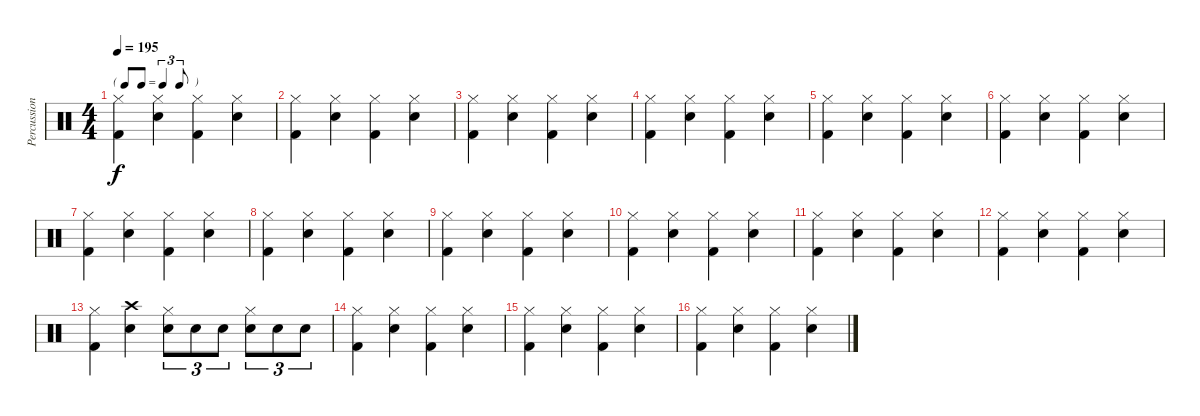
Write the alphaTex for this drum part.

\track ("Percussions" "Percussion") {instrument percussion}
\staff {score}
\articulation defaults
\ts (4 4)
\tf triplet8th
\tempo 195
\clef neutral
\ks c
("Hi-Hat (closed)" "Kick (hit) 2").4{dy f} ("Snare (hit) 2" "Hi-Hat (closed)").4 ("Hi-Hat (closed)" "Kick (hit) 2").4 ("Snare (hit) 2" "Hi-Hat (closed)").4 |
("Hi-Hat (closed)" "Kick (hit) 2").4 ("Snare (hit) 2" "Hi-Hat (closed)").4 ("Hi-Hat (closed)" "Kick (hit) 2").4 ("Snare (hit) 2" "Hi-Hat (closed)").4 |
("Hi-Hat (closed)" "Kick (hit) 2").4 ("Snare (hit) 2" "Hi-Hat (closed)").4 ("Hi-Hat (closed)" "Kick (hit) 2").4 ("Snare (hit) 2" "Hi-Hat (closed)").4 |
("Hi-Hat (closed)" "Kick (hit) 2").4 ("Snare (hit) 2" "Hi-Hat (closed)").4 ("Hi-Hat (closed)" "Kick (hit) 2").4 ("Snare (hit) 2" "Hi-Hat (closed)").4 |
("Hi-Hat (closed)" "Kick (hit) 2").4 ("Snare (hit) 2" "Hi-Hat (closed)").4 ("Hi-Hat (closed)" "Kick (hit) 2").4 ("Snare (hit) 2" "Hi-Hat (closed)").4 |
("Hi-Hat (closed)" "Kick (hit) 2").4 ("Snare (hit) 2" "Hi-Hat (closed)").4 ("Hi-Hat (closed)" "Kick (hit) 2").4 ("Snare (hit) 2" "Hi-Hat (closed)").4 |
("Hi-Hat (closed)" "Kick (hit) 2").4 ("Snare (hit) 2" "Hi-Hat (closed)").4 ("Hi-Hat (closed)" "Kick (hit) 2").4 ("Snare (hit) 2" "Hi-Hat (closed)").4 |
("Hi-Hat (closed)" "Kick (hit) 2").4 ("Snare (hit) 2" "Hi-Hat (closed)").4 ("Hi-Hat (closed)" "Kick (hit) 2").4 ("Snare (hit) 2" "Hi-Hat (closed)").4 |
("Hi-Hat (closed)" "Kick (hit) 2").4 ("Snare (hit) 2" "Hi-Hat (closed)").4 ("Hi-Hat (closed)" "Kick (hit) 2").4 ("Snare (hit) 2" "Hi-Hat (closed)").4 |
("Hi-Hat (closed)" "Kick (hit) 2").4 ("Snare (hit) 2" "Hi-Hat (closed)").4 ("Hi-Hat (closed)" "Kick (hit) 2").4 ("Snare (hit) 2" "Hi-Hat (closed)").4 |
("Hi-Hat (closed)" "Kick (hit) 2").4 ("Snare (hit) 2" "Hi-Hat (closed)").4 ("Hi-Hat (closed)" "Kick (hit) 2").4 ("Snare (hit) 2" "Hi-Hat (closed)").4 |
("Hi-Hat (closed)" "Kick (hit) 2").4 ("Snare (hit) 2" "Hi-Hat (closed)").4 ("Hi-Hat (closed)" "Kick (hit) 2").4 ("Snare (hit) 2" "Hi-Hat (closed)").4 |
("Hi-Hat (closed)" "Kick (hit) 2").4 ("Snare (hit) 2" "Crash high (hit)").4 ("Snare (hit) 2" "Hi-Hat (closed)").8{tu (3 2)} "Snare (hit) 2".8{tu (3 2)} "Snare (hit) 2".8{tu (3 2)} ("Snare (hit) 2" "Hi-Hat (closed)").8{tu (3 2)} "Snare (hit) 2".8{tu (3 2)} "Snare (hit) 2".8{tu (3 2)} |
("Hi-Hat (closed)" "Kick (hit) 2").4 ("Snare (hit) 2" "Hi-Hat (closed)").4 ("Hi-Hat (closed)" "Kick (hit) 2").4 ("Snare (hit) 2" "Hi-Hat (closed)").4 |
("Hi-Hat (closed)" "Kick (hit) 2").4 ("Snare (hit) 2" "Hi-Hat (closed)").4 ("Hi-Hat (closed)" "Kick (hit) 2").4 ("Snare (hit) 2" "Hi-Hat (closed)").4 |
("Hi-Hat (closed)" "Kick (hit) 2").4 ("Snare (hit) 2" "Hi-Hat (closed)").4 ("Hi-Hat (closed)" "Kick (hit) 2").4 ("Snare (hit) 2" "Hi-Hat (closed)").4
